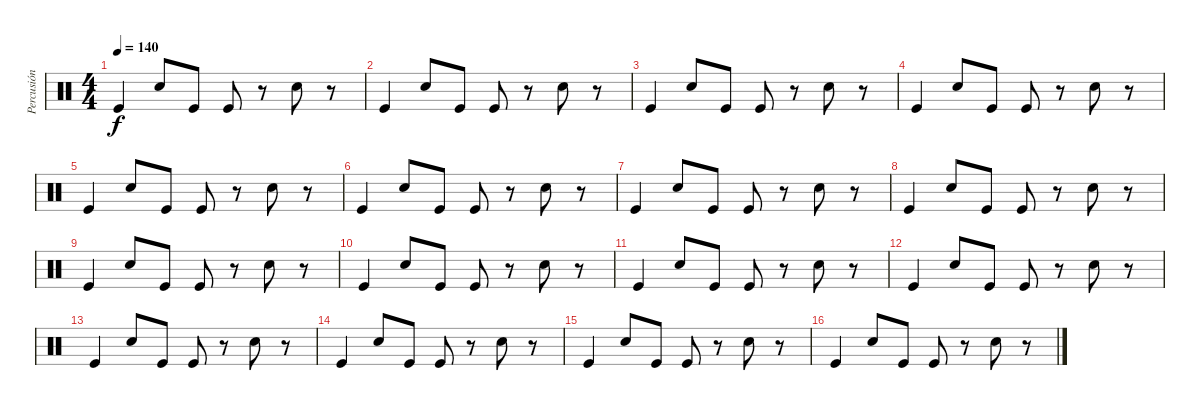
\track ("Percusión" "Percusión") {instrument percussion}
\staff {score}
\articulation defaults
\ts (4 4)
\tempo 140
\clef neutral
\ks c "Kick (hit)".4{dy f} "Snare (hit) 2".8 "Kick (hit)".8 "Kick (hit)".8
r.8 "Snare (hit) 2".8 r.8 |
"Kick (hit)".4 "Snare (hit) 2".8 "Kick (hit)".8 "Kick (hit)".8 r.8 "Snare (hit) 2".8 r.8 |
"Kick (hit)".4 "Snare (hit) 2".8 "Kick (hit)".8 "Kick (hit)".8 r.8 "Snare (hit) 2".8 r.8 |
"Kick (hit)".4 "Snare (hit) 2".8 "Kick (hit)".8 "Kick (hit)".8 r.8 "Snare (hit) 2".8 r.8 |
"Kick (hit)".4 "Snare (hit) 2".8 "Kick (hit)".8 "Kick (hit)".8 r.8 "Snare (hit) 2".8 r.8 |
"Kick (hit)".4 "Snare (hit) 2".8 "Kick (hit)".8 "Kick (hit)".8 r.8 "Snare (hit) 2".8 r.8 |
"Kick (hit)".4 "Snare (hit) 2".8 "Kick (hit)".8 "Kick (hit)".8 r.8 "Snare (hit) 2".8 r.8 |
"Kick (hit)".4 "Snare (hit) 2".8 "Kick (hit)".8 "Kick (hit)".8 r.8 "Snare (hit) 2".8 r.8 |
"Kick (hit)".4 "Snare (hit) 2".8 "Kick (hit)".8 "Kick (hit)".8 r.8 "Snare (hit) 2".8 r.8 |
"Kick (hit)".4 "Snare (hit) 2".8 "Kick (hit)".8 "Kick (hit)".8 r.8 "Snare (hit) 2".8 r.8 |
"Kick (hit)".4 "Snare (hit) 2".8 "Kick (hit)".8 "Kick (hit)".8 r.8 "Snare (hit) 2".8 r.8 |
"Kick (hit)".4 "Snare (hit) 2".8 "Kick (hit)".8 "Kick (hit)".8 r.8 "Snare (hit) 2".8 r.8 |
"Kick (hit)".4 "Snare (hit) 2".8 "Kick (hit)".8 "Kick (hit)".8 r.8 "Snare (hit) 2".8 r.8 |
"Kick (hit)".4 "Snare (hit) 2".8 "Kick (hit)".8 "Kick (hit)".8 r.8 "Snare (hit) 2".8 r.8 |
"Kick (hit)".4 "Snare (hit) 2".8 "Kick (hit)".8 "Kick (hit)".8 r.8 "Snare (hit) 2".8 r.8 |
"Kick (hit)".4 "Snare (hit) 2".8 "Kick (hit)".8 "Kick (hit)".8 r.8 "Snare (hit) 2".8 r.8
